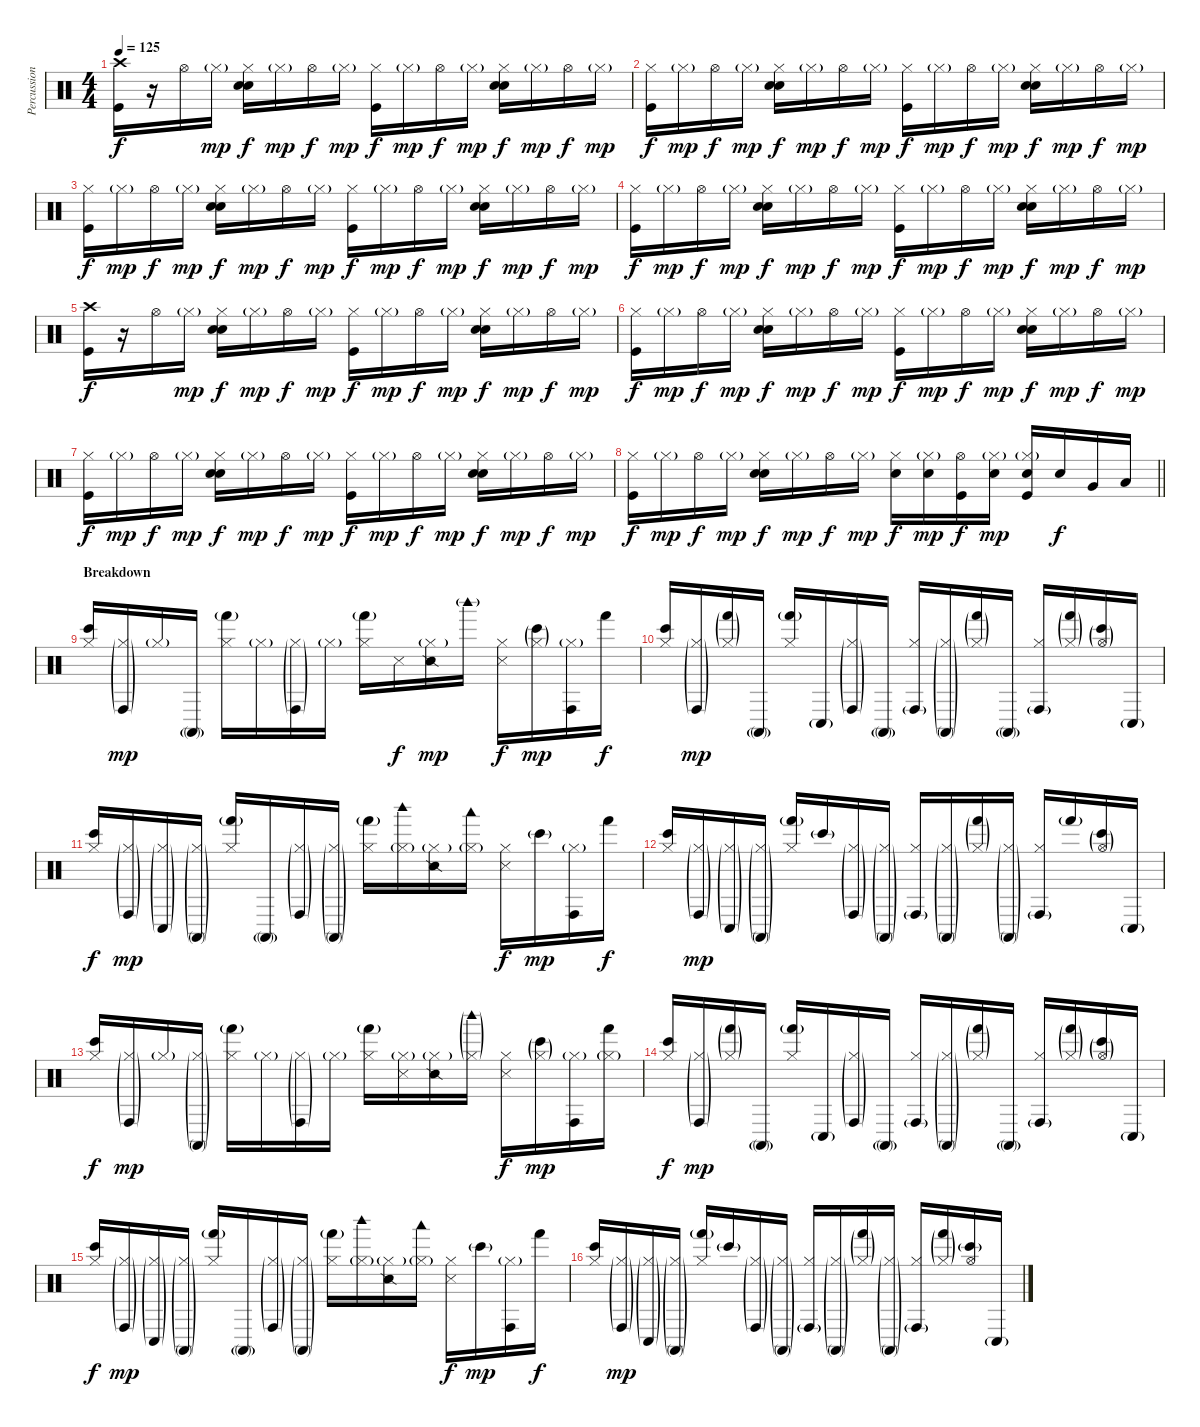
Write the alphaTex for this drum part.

\track ("Percussion" "Percussion") {instrument percussion}
\staff {score}
\articulation defaults
\ts (4 4)
\tempo 125
\clef neutral
\ks c
("Crash high (hit)" "Kick (hit)").16{dy f} r.16 "Hi-Hat (open)".16 "Hi-Hat (closed)"{g}.16{dy mp} ("Hi-Hat (closed)" "Hand Clap (hit)" "Snare (hit) 2").16{dy f} "Hi-Hat (closed)"{g}.16{dy mp} "Hi-Hat (open)".16{dy f} "Hi-Hat (closed)"{g}.16{dy mp} ("Hi-Hat (closed)" "Kick (hit)").16{dy f} "Hi-Hat (closed)"{g}.16{dy mp} "Hi-Hat (open)".16{dy f} "Hi-Hat (closed)"{g}.16{dy mp} ("Hi-Hat (closed)" "Hand Clap (hit)" "Snare (hit) 2").16{dy f} "Hi-Hat (closed)"{g}.16{dy mp} "Hi-Hat (open)".16{dy f} "Hi-Hat (closed)"{g}.16{dy mp} |
("Hi-Hat (closed)" "Kick (hit)").16{dy f} "Hi-Hat (closed)"{g}.16{dy mp} "Hi-Hat (open)".16{dy f} "Hi-Hat (closed)"{g}.16{dy mp} ("Hi-Hat (closed)" "Hand Clap (hit)" "Snare (hit) 2").16{dy f} "Hi-Hat (closed)"{g}.16{dy mp} "Hi-Hat (open)".16{dy f} "Hi-Hat (closed)"{g}.16{dy mp} ("Hi-Hat (closed)" "Kick (hit)").16{dy f} "Hi-Hat (closed)"{g}.16{dy mp} "Hi-Hat (open)".16{dy f} "Hi-Hat (closed)"{g}.16{dy mp} ("Hi-Hat (closed)" "Hand Clap (hit)" "Snare (hit) 2").16{dy f} "Hi-Hat (closed)"{g}.16{dy mp} "Hi-Hat (open)".16{dy f} "Hi-Hat (closed)"{g}.16{dy mp} |
("Hi-Hat (closed)" "Kick (hit)").16{dy f} "Hi-Hat (closed)"{g}.16{dy mp} "Hi-Hat (open)".16{dy f} "Hi-Hat (closed)"{g}.16{dy mp} ("Hi-Hat (closed)" "Hand Clap (hit)" "Snare (hit) 2").16{dy f} "Hi-Hat (closed)"{g}.16{dy mp} "Hi-Hat (open)".16{dy f} "Hi-Hat (closed)"{g}.16{dy mp} ("Hi-Hat (closed)" "Kick (hit)").16{dy f} "Hi-Hat (closed)"{g}.16{dy mp} "Hi-Hat (open)".16{dy f} "Hi-Hat (closed)"{g}.16{dy mp} ("Hi-Hat (closed)" "Hand Clap (hit)" "Snare (hit) 2").16{dy f} "Hi-Hat (closed)"{g}.16{dy mp} "Hi-Hat (open)".16{dy f} "Hi-Hat (closed)"{g}.16{dy mp} |
("Hi-Hat (closed)" "Kick (hit)").16{dy f} "Hi-Hat (closed)"{g}.16{dy mp} "Hi-Hat (open)".16{dy f} "Hi-Hat (closed)"{g}.16{dy mp} ("Hi-Hat (closed)" "Hand Clap (hit)" "Snare (hit) 2").16{dy f} "Hi-Hat (closed)"{g}.16{dy mp} "Hi-Hat (open)".16{dy f} "Hi-Hat (closed)"{g}.16{dy mp} ("Hi-Hat (closed)" "Kick (hit)").16{dy f} "Hi-Hat (closed)"{g}.16{dy mp} "Hi-Hat (open)".16{dy f} "Hi-Hat (closed)"{g}.16{dy mp} ("Hi-Hat (closed)" "Hand Clap (hit)" "Snare (hit) 2").16{dy f} "Hi-Hat (closed)"{g}.16{dy mp} "Hi-Hat (open)".16{dy f} "Hi-Hat (closed)"{g}.16{dy mp} |
("Crash high (hit)" "Kick (hit)").16{dy f} r.16 "Hi-Hat (open)".16 "Hi-Hat (closed)"{g}.16{dy mp} ("Hi-Hat (closed)" "Hand Clap (hit)" "Snare (hit) 2").16{dy f} "Hi-Hat (closed)"{g}.16{dy mp} "Hi-Hat (open)".16{dy f} "Hi-Hat (closed)"{g}.16{dy mp} ("Hi-Hat (closed)" "Kick (hit)").16{dy f} "Hi-Hat (closed)"{g}.16{dy mp} "Hi-Hat (open)".16{dy f} "Hi-Hat (closed)"{g}.16{dy mp} ("Hi-Hat (closed)" "Hand Clap (hit)" "Snare (hit) 2").16{dy f} "Hi-Hat (closed)"{g}.16{dy mp} "Hi-Hat (open)".16{dy f} "Hi-Hat (closed)"{g}.16{dy mp} |
("Hi-Hat (closed)" "Kick (hit)").16{dy f} "Hi-Hat (closed)"{g}.16{dy mp} "Hi-Hat (open)".16{dy f} "Hi-Hat (closed)"{g}.16{dy mp} ("Hi-Hat (closed)" "Hand Clap (hit)" "Snare (hit) 2").16{dy f} "Hi-Hat (closed)"{g}.16{dy mp} "Hi-Hat (open)".16{dy f} "Hi-Hat (closed)"{g}.16{dy mp} ("Hi-Hat (closed)" "Kick (hit)").16{dy f} "Hi-Hat (closed)"{g}.16{dy mp} "Hi-Hat (open)".16{dy f} "Hi-Hat (closed)"{g}.16{dy mp} ("Hi-Hat (closed)" "Hand Clap (hit)" "Snare (hit) 2").16{dy f} "Hi-Hat (closed)"{g}.16{dy mp} "Hi-Hat (open)".16{dy f} "Hi-Hat (closed)"{g}.16{dy mp} |
("Hi-Hat (closed)" "Kick (hit)").16{dy f} "Hi-Hat (closed)"{g}.16{dy mp} "Hi-Hat (open)".16{dy f} "Hi-Hat (closed)"{g}.16{dy mp} ("Hi-Hat (closed)" "Hand Clap (hit)" "Snare (hit) 2").16{dy f} "Hi-Hat (closed)"{g}.16{dy mp} "Hi-Hat (open)".16{dy f} "Hi-Hat (closed)"{g}.16{dy mp} ("Hi-Hat (closed)" "Kick (hit)").16{dy f} "Hi-Hat (closed)"{g}.16{dy mp} "Hi-Hat (open)".16{dy f} "Hi-Hat (closed)"{g}.16{dy mp} ("Hi-Hat (closed)" "Hand Clap (hit)" "Snare (hit) 2").16{dy f} "Hi-Hat (closed)"{g}.16{dy mp} "Hi-Hat (open)".16{dy f} "Hi-Hat (closed)"{g}.16{dy mp} |
\barLineRight lightlight
("Hi-Hat (closed)" "Kick (hit)").16{dy f} "Hi-Hat (closed)"{g}.16{dy mp} "Hi-Hat (open)".16{dy f} "Hi-Hat (closed)"{g}.16{dy mp} ("Hi-Hat (closed)" "Hand Clap (hit)" "Snare (hit) 2").16{dy f} "Hi-Hat (closed)"{g}.16{dy mp} "Hi-Hat (open)".16{dy f} "Hi-Hat (closed)"{g}.16{dy mp} ("Hi-Hat (closed)" "Snare (hit) 2").16{dy f} ("Hi-Hat (closed)"{g} "Snare (hit) 2").16{dy mp} ("Hi-Hat (open)" "Kick (hit)").16{dy f} ("Hi-Hat (closed)"{g} "Snare (hit) 2").16{dy mp} ("Hi-Hat (closed)"{g} "Snare (hit) 2" "Kick (hit)").16 "Snare (hit) 2".16{dy f} "Very Low Tom (hit)".16 "Low Tom (hit)".16 |
\section ("" "Breakdown")
("Hi-Hat (closed)" "Bongo High (hit)").16 ("Hi-Hat (closed)"{g} "Conga high (hit)"{g}).16{dy mp} "Hi-Hat (closed)"{g}.16 "Conga high (mute)"{g}.16 ("Hi-Hat (closed)" "Hand (hit)"{g}).16 "Hi-Hat (closed)"{g}.16 ("Hi-Hat (closed)"{g} "Conga high (hit)"{g}).16 "Hi-Hat (closed)"{g}.16 ("Hi-Hat (closed)" "Hand (hit)"{g}).16 "Snare (side stick) 3".16{dy f} ("Hi-Hat (closed)"{g} "Snare (side stick) 2").16{dy mp} "Woodblock high (hit)"{g}.16 ("Hi-Hat (closed)" "Snare (side stick) 3").16{dy f} ("Hi-Hat (closed)"{g} "Bongo High (hit)"{g}).16{dy mp} ("Hi-Hat (closed)"{g} "Conga high (hit)").16 "Hand (hit)".16{dy f} |
("Hi-Hat (closed)" "Bongo High (hit)").16 ("Hi-Hat (closed)"{g} "Conga high (hit)"{g}).16{dy mp} ("Hi-Hat (closed)"{g} "Hand (hit)"{g}).16 "Conga high (mute)"{g}.16 ("Hi-Hat (closed)" "Hand (hit)"{g}).16 "Conga low (hit)"{g}.16 ("Hi-Hat (closed)"{g} "Conga high (hit)"{g}).16 "Conga high (mute)"{g}.16 ("Hi-Hat (closed)" "Conga high (hit)"{g}).16 ("Hi-Hat (closed)"{g} "Conga high (mute)"{g}).16 ("Hi-Hat (closed)"{g} "Hand (hit)"{g}).16 "Conga high (mute)"{g}.16 ("Hi-Hat (closed)" "Conga high (hit)"{g}).16 ("Hi-Hat (closed)"{g} "Hand (hit)"{g}).16 ("Hi-Hat (open)"{g} "Bongo High (hit)"{g}).16 "Conga low (hit)"{g}.16 |
("Hi-Hat (closed)" "Bongo High (hit)").16{dy f} ("Hi-Hat (closed)"{g} "Conga high (hit)"{g}).16{dy mp} ("Hi-Hat (closed)"{g} "Conga low (hit)"{g}).16 ("Hi-Hat (closed)"{g} "Conga high (mute)"{g}).16 ("Hi-Hat (closed)" "Hand (hit)"{g}).16 "Conga high (mute)"{g}.16 ("Hi-Hat (closed)"{g} "Conga high (hit)"{g}).16 ("Hi-Hat (closed)"{g} "Conga high (mute)"{g}).16 ("Hi-Hat (closed)" "Hand (hit)"{g}).16 ("Hi-Hat (closed)"{g} "Woodblock high (hit)").16 ("Hi-Hat (closed)"{g} "Snare (side stick) 2").16 ("Hi-Hat (closed)"{g} "Woodblock low (hit)").16 ("Hi-Hat (closed)" "Snare (side stick) 3").16{dy f} "Bongo High (hit)"{g}.16{dy mp} ("Hi-Hat (closed)"{g} "Conga high (hit)").16 "Hand (hit)".16{dy f} |
("Hi-Hat (closed)" "Bongo High (hit)").16 ("Hi-Hat (closed)"{g} "Conga high (hit)"{g}).16{dy mp} ("Hi-Hat (closed)"{g} "Conga low (hit)"{g}).16 ("Hi-Hat (closed)"{g} "Conga high (mute)"{g}).16 ("Hi-Hat (closed)" "Hand (hit)"{g}).16 "Bongo High (hit)"{g}.16 ("Hi-Hat (closed)"{g} "Conga high (hit)"{g}).16 ("Hi-Hat (closed)"{g} "Conga high (mute)"{g}).16 ("Hi-Hat (closed)" "Conga high (hit)"{g}).16 ("Hi-Hat (closed)"{g} "Conga high (mute)"{g}).16 ("Hi-Hat (closed)"{g} "Hand (hit)"{g}).16 ("Hi-Hat (closed)"{g} "Conga high (mute)"{g}).16 ("Hi-Hat (closed)" "Conga high (hit)"{g}).16 "Hand (hit)"{g}.16 ("Hi-Hat (open)"{g} "Bongo High (hit)"{g}).16 "Conga low (hit)"{g}.16 |
("Hi-Hat (closed)" "Bongo High (hit)").16{dy f} ("Hi-Hat (closed)"{g} "Conga high (hit)"{g}).16{dy mp} "Hi-Hat (closed)"{g}.16 ("Hi-Hat (closed)"{g} "Conga high (mute)"{g}).16 ("Hi-Hat (closed)" "Hand (hit)"{g}).16 "Hi-Hat (closed)"{g}.16 ("Hi-Hat (closed)"{g} "Conga high (hit)"{g}).16 "Hi-Hat (closed)"{g}.16 ("Hi-Hat (closed)" "Hand (hit)"{g}).16 ("Hi-Hat (closed)"{g} "Snare (side stick) 3").16 ("Hi-Hat (closed)"{g} "Snare (side stick) 2").16 ("Hi-Hat (closed)"{g} "Woodblock high (hit)"{g}).16 ("Hi-Hat (closed)" "Snare (side stick) 3").16{dy f} ("Hi-Hat (closed)"{g} "Bongo High (hit)"{g}).16{dy mp} ("Hi-Hat (closed)"{g} "Conga high (hit)").16 ("Hi-Hat (closed)"{g} "Hand (hit)").16 |
("Hi-Hat (closed)" "Bongo High (hit)").16{dy f} ("Hi-Hat (closed)"{g} "Conga high (hit)"{g}).16{dy mp} ("Hi-Hat (closed)"{g} "Hand (hit)"{g}).16 "Conga high (mute)"{g}.16 ("Hi-Hat (closed)" "Hand (hit)"{g}).16 "Conga low (hit)"{g}.16 ("Hi-Hat (closed)"{g} "Conga high (hit)"{g}).16 "Conga high (mute)"{g}.16 ("Hi-Hat (closed)" "Conga high (hit)"{g}).16 ("Hi-Hat (closed)"{g} "Conga high (mute)"{g}).16 ("Hi-Hat (closed)"{g} "Hand (hit)"{g}).16 "Conga high (mute)"{g}.16 ("Hi-Hat (closed)" "Conga high (hit)"{g}).16 ("Hi-Hat (closed)"{g} "Hand (hit)"{g}).16 ("Hi-Hat (open)"{g} "Bongo High (hit)"{g}).16 "Conga low (hit)"{g}.16 |
("Hi-Hat (closed)" "Bongo High (hit)").16{dy f} ("Hi-Hat (closed)"{g} "Conga high (hit)"{g}).16{dy mp} ("Hi-Hat (closed)"{g} "Conga low (hit)"{g}).16 ("Hi-Hat (closed)"{g} "Conga high (mute)"{g}).16 ("Hi-Hat (closed)" "Hand (hit)"{g}).16 "Conga high (mute)"{g}.16 ("Hi-Hat (closed)"{g} "Conga high (hit)"{g}).16 ("Hi-Hat (closed)"{g} "Conga high (mute)"{g}).16 ("Hi-Hat (closed)" "Hand (hit)"{g}).16 ("Hi-Hat (closed)"{g} "Woodblock high (hit)").16 ("Hi-Hat (closed)"{g} "Snare (side stick) 2").16 ("Hi-Hat (closed)"{g} "Woodblock low (hit)").16 ("Hi-Hat (closed)" "Snare (side stick) 3").16{dy f} "Bongo High (hit)"{g}.16{dy mp} ("Hi-Hat (closed)"{g} "Conga high (hit)").16 "Hand (hit)".16{dy f} |
("Hi-Hat (closed)" "Bongo High (hit)").16 ("Hi-Hat (closed)"{g} "Conga high (hit)"{g}).16{dy mp} ("Hi-Hat (closed)"{g} "Conga low (hit)"{g}).16 ("Hi-Hat (closed)"{g} "Conga high (mute)"{g}).16 ("Hi-Hat (closed)" "Hand (hit)"{g}).16 "Bongo High (hit)"{g}.16 ("Hi-Hat (closed)"{g} "Conga high (hit)"{g}).16 ("Hi-Hat (closed)"{g} "Conga high (mute)"{g}).16 ("Hi-Hat (closed)" "Conga high (hit)"{g}).16 ("Hi-Hat (closed)"{g} "Conga high (mute)"{g}).16 ("Hi-Hat (closed)"{g} "Hand (hit)"{g}).16 ("Hi-Hat (closed)"{g} "Conga high (mute)"{g}).16 ("Hi-Hat (closed)" "Conga high (hit)"{g}).16 ("Hi-Hat (closed)"{g} "Hand (hit)"{g}).16 ("Hi-Hat (open)" "Bongo High (hit)"{g}).16 "Conga low (hit)"{g}.16
